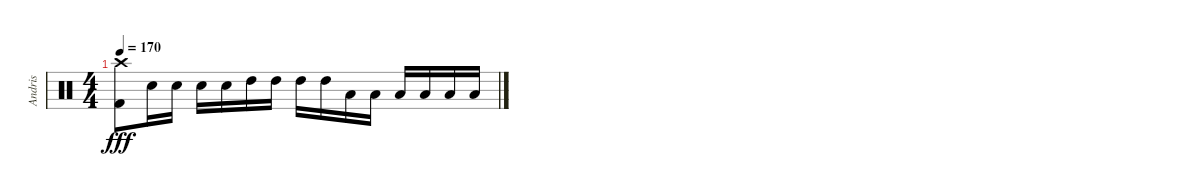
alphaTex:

\track ("Andris" "Andris") {instrument percussion}
\staff {score}
\articulation defaults
\ts (4 4)
\tempo 170
\clef neutral
\ks c
("Crash high (hit)" "Kick (hit) 2").8{dy fff} "Electric Snare (hit)".16 "Electric Snare (hit)".16 "Electric Snare (hit)".16 "Electric Snare (hit)".16 "High Tom (hit)".16 "High Tom (hit)".16 "High Tom (hit)".16 "High Tom (hit)".16 "Low Tom (hit)".16 "Low Tom (hit)".16 "Low Tom (hit)".16 "Low Tom (hit)".16 "Low Tom (hit)".16 "Low Tom (hit)".16
